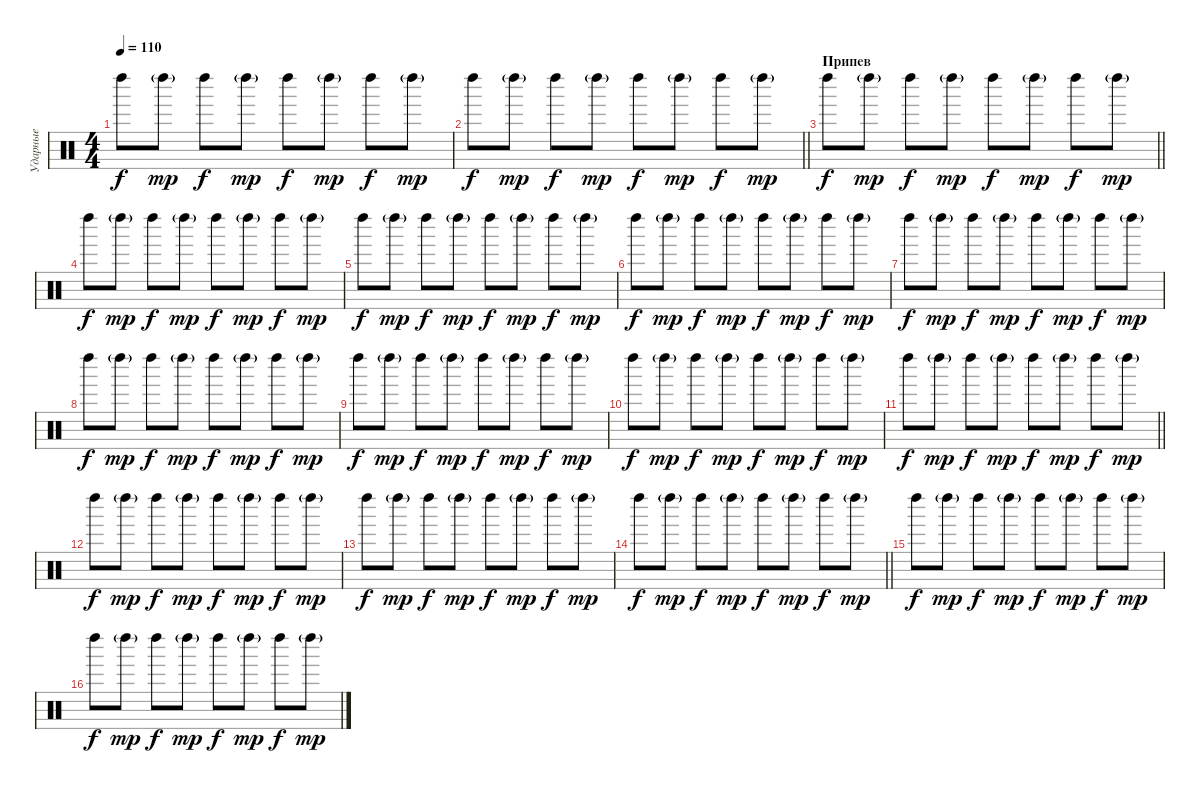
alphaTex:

\track ("Ударные" "Ударные") {instrument percussion}
\staff {score}
\articulation defaults
\ts (4 4)
\tempo 110
\clef neutral
\ks c "Left Maraca (hit)".8{dy f} "Left Maraca (hit)"{g}.8{dy mp} "Left Maraca (hit)".8{dy f} "Left Maraca (hit)"{g}.8{dy mp} "Left Maraca (hit)".8{dy f} "Left Maraca (hit)"{g}.8{dy mp} "Left Maraca (hit)".8{dy f} "Left Maraca (hit)"{g}.8{dy mp}
|
\barLineRight lightlight "Left Maraca (hit)".8{dy f} "Left Maraca (hit)"{g}.8{dy mp} "Left Maraca (hit)".8{dy f} "Left Maraca (hit)"{g}.8{dy mp} "Left Maraca (hit)".8{dy f} "Left Maraca (hit)"{g}.8{dy mp} "Left Maraca (hit)".8{dy f} "Left Maraca (hit)"{g}.8{dy mp}
|
\section ("" "Припев")
\barLineRight lightlight "Left Maraca (hit)".8{dy f} "Left Maraca (hit)"{g}.8{dy mp} "Left Maraca (hit)".8{dy f} "Left Maraca (hit)"{g}.8{dy mp} "Left Maraca (hit)".8{dy f} "Left Maraca (hit)"{g}.8{dy mp} "Left Maraca (hit)".8{dy f} "Left Maraca (hit)"{g}.8{dy mp}
|
"Left Maraca (hit)".8{dy f} "Left Maraca (hit)"{g}.8{dy mp} "Left Maraca (hit)".8{dy f} "Left Maraca (hit)"{g}.8{dy mp} "Left Maraca (hit)".8{dy f} "Left Maraca (hit)"{g}.8{dy mp} "Left Maraca (hit)".8{dy f} "Left Maraca (hit)"{g}.8{dy mp} |
"Left Maraca (hit)".8{dy f} "Left Maraca (hit)"{g}.8{dy mp} "Left Maraca (hit)".8{dy f} "Left Maraca (hit)"{g}.8{dy mp} "Left Maraca (hit)".8{dy f} "Left Maraca (hit)"{g}.8{dy mp} "Left Maraca (hit)".8{dy f} "Left Maraca (hit)"{g}.8{dy mp} |
"Left Maraca (hit)".8{dy f} "Left Maraca (hit)"{g}.8{dy mp} "Left Maraca (hit)".8{dy f} "Left Maraca (hit)"{g}.8{dy mp} "Left Maraca (hit)".8{dy f} "Left Maraca (hit)"{g}.8{dy mp} "Left Maraca (hit)".8{dy f} "Left Maraca (hit)"{g}.8{dy mp} |
"Left Maraca (hit)".8{dy f} "Left Maraca (hit)"{g}.8{dy mp} "Left Maraca (hit)".8{dy f} "Left Maraca (hit)"{g}.8{dy mp} "Left Maraca (hit)".8{dy f} "Left Maraca (hit)"{g}.8{dy mp} "Left Maraca (hit)".8{dy f} "Left Maraca (hit)"{g}.8{dy mp} |
"Left Maraca (hit)".8{dy f} "Left Maraca (hit)"{g}.8{dy mp} "Left Maraca (hit)".8{dy f} "Left Maraca (hit)"{g}.8{dy mp} "Left Maraca (hit)".8{dy f} "Left Maraca (hit)"{g}.8{dy mp} "Left Maraca (hit)".8{dy f} "Left Maraca (hit)"{g}.8{dy mp} |
"Left Maraca (hit)".8{dy f} "Left Maraca (hit)"{g}.8{dy mp} "Left Maraca (hit)".8{dy f} "Left Maraca (hit)"{g}.8{dy mp} "Left Maraca (hit)".8{dy f} "Left Maraca (hit)"{g}.8{dy mp} "Left Maraca (hit)".8{dy f} "Left Maraca (hit)"{g}.8{dy mp} |
"Left Maraca (hit)".8{dy f} "Left Maraca (hit)"{g}.8{dy mp} "Left Maraca (hit)".8{dy f} "Left Maraca (hit)"{g}.8{dy mp} "Left Maraca (hit)".8{dy f} "Left Maraca (hit)"{g}.8{dy mp} "Left Maraca (hit)".8{dy f} "Left Maraca (hit)"{g}.8{dy mp} |
\barLineRight lightlight "Left Maraca (hit)".8{dy f} "Left Maraca (hit)"{g}.8{dy mp} "Left Maraca (hit)".8{dy f} "Left Maraca (hit)"{g}.8{dy mp} "Left Maraca (hit)".8{dy f} "Left Maraca (hit)"{g}.8{dy mp} "Left Maraca (hit)".8{dy f} "Left Maraca (hit)"{g}.8{dy mp}
|
"Left Maraca (hit)".8{dy f} "Left Maraca (hit)"{g}.8{dy mp} "Left Maraca (hit)".8{dy f} "Left Maraca (hit)"{g}.8{dy mp} "Left Maraca (hit)".8{dy f} "Left Maraca (hit)"{g}.8{dy mp} "Left Maraca (hit)".8{dy f} "Left Maraca (hit)"{g}.8{dy mp} |
"Left Maraca (hit)".8{dy f} "Left Maraca (hit)"{g}.8{dy mp} "Left Maraca (hit)".8{dy f} "Left Maraca (hit)"{g}.8{dy mp} "Left Maraca (hit)".8{dy f} "Left Maraca (hit)"{g}.8{dy mp} "Left Maraca (hit)".8{dy f} "Left Maraca (hit)"{g}.8{dy mp} |
\barLineRight lightlight "Left Maraca (hit)".8{dy f} "Left Maraca (hit)"{g}.8{dy mp} "Left Maraca (hit)".8{dy f} "Left Maraca (hit)"{g}.8{dy mp} "Left Maraca (hit)".8{dy f} "Left Maraca (hit)"{g}.8{dy mp} "Left Maraca (hit)".8{dy f} "Left Maraca (hit)"{g}.8{dy mp}
|
"Left Maraca (hit)".8{dy f} "Left Maraca (hit)"{g}.8{dy mp} "Left Maraca (hit)".8{dy f} "Left Maraca (hit)"{g}.8{dy mp} "Left Maraca (hit)".8{dy f} "Left Maraca (hit)"{g}.8{dy mp} "Left Maraca (hit)".8{dy f} "Left Maraca (hit)"{g}.8{dy mp} |
"Left Maraca (hit)".8{dy f} "Left Maraca (hit)"{g}.8{dy mp} "Left Maraca (hit)".8{dy f} "Left Maraca (hit)"{g}.8{dy mp} "Left Maraca (hit)".8{dy f} "Left Maraca (hit)"{g}.8{dy mp} "Left Maraca (hit)".8{dy f} "Left Maraca (hit)"{g}.8{dy mp}
